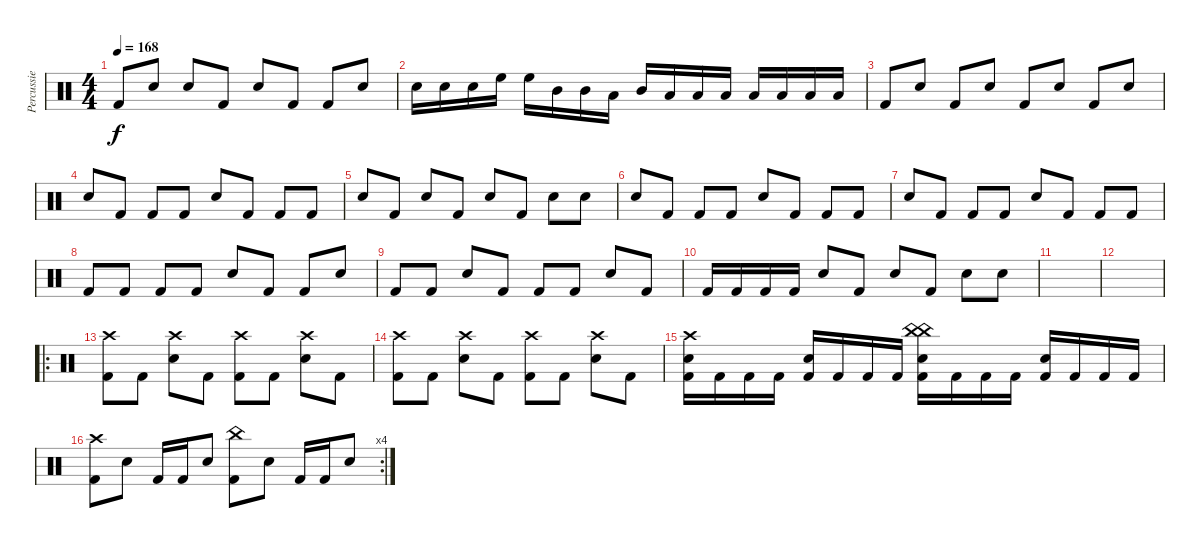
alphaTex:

\track ("Percussie" "Percussie") {instrument percussion}
\staff {score}
\articulation defaults
\ts (4 4)
\tempo 168
\clef neutral
\ks c "Kick (hit) 2".8{dy f} "Snare (hit) 2".8 "Snare (hit) 2".8 "Kick (hit) 2".8 "Snare (hit) 2".8 "Kick (hit) 2".8 "Kick (hit) 2".8 "Snare (hit) 2".8
|
"Snare (hit) 2".16 "Snare (hit) 2".16 "Snare (hit) 2".16 "High Floor Tom (hit)".16 "High Floor Tom (hit)".16 "Mid Tom (hit)".16 "Mid Tom (hit)".16 "Low Tom (hit)".16 "Mid Tom (hit)".16 "Low Tom (hit)".16 "Low Tom (hit)".16 "Low Tom (hit)".16 "Low Floor Tom (hit)".16 "Low Floor Tom (hit)".16 "Low Floor Tom (hit)".16 "Low Floor Tom (hit)".16 |
"Kick (hit) 2".8 "Snare (hit) 2".8 "Kick (hit) 2".8 "Snare (hit) 2".8 "Kick (hit) 2".8 "Snare (hit) 2".8 "Kick (hit) 2".8 "Snare (hit) 2".8 |
"Snare (hit) 2".8 "Kick (hit) 2".8 "Kick (hit) 2".8 "Kick (hit) 2".8 "Snare (hit) 2".8 "Kick (hit) 2".8 "Kick (hit) 2".8 "Kick (hit) 2".8 |
"Snare (hit) 2".8 "Kick (hit) 2".8 "Snare (hit) 2".8 "Kick (hit) 2".8 "Snare (hit) 2".8 "Kick (hit) 2".8 "Snare (hit) 2".8 "Snare (hit) 2".8 |
"Snare (hit) 2".8 "Kick (hit) 2".8 "Kick (hit) 2".8 "Kick (hit) 2".8 "Snare (hit) 2".8 "Kick (hit) 2".8 "Kick (hit) 2".8 "Kick (hit) 2".8 |
"Snare (hit) 2".8 "Kick (hit) 2".8 "Kick (hit) 2".8 "Kick (hit) 2".8 "Snare (hit) 2".8 "Kick (hit) 2".8 "Kick (hit) 2".8 "Kick (hit) 2".8 |
"Kick (hit) 2".8 "Kick (hit) 2".8 "Kick (hit) 2".8 "Kick (hit) 2".8 "Snare (hit) 2".8 "Kick (hit) 2".8 "Kick (hit) 2".8 "Snare (hit) 2".8 |
"Kick (hit) 2".8 "Kick (hit) 2".8 "Snare (hit) 2".8 "Kick (hit) 2".8 "Kick (hit) 2".8 "Kick (hit) 2".8 "Snare (hit) 2".8 "Kick (hit) 2".8 |
"Kick (hit) 2".16 "Kick (hit) 2".16 "Kick (hit) 2".16 "Kick (hit) 2".16 "Snare (hit) 2".8 "Kick (hit) 2".8 "Snare (hit) 2".8 "Kick (hit) 2".8 "Snare (hit) 2".8 "Snare (hit) 2".8 |
|
|
\ro
("Crash high (hit)" "Kick (hit) 2").8 "Kick (hit) 2".8 ("Crash high (hit)" "Snare (hit) 2").8 "Kick (hit) 2".8 ("Crash high (hit)" "Kick (hit) 2").8 "Kick (hit) 2".8 ("Crash high (hit)" "Snare (hit) 2").8 "Kick (hit) 2".8 |
("Crash high (hit)" "Kick (hit) 2").8 "Kick (hit) 2".8 ("Crash high (hit)" "Snare (hit) 2").8 "Kick (hit) 2".8 ("Crash high (hit)" "Kick (hit) 2").8 "Kick (hit) 2".8 ("Crash high (hit)" "Snare (hit) 2").8 "Kick (hit) 2".8 |
("Snare (hit) 2" "Crash high (hit)" "Kick (hit) 2").16 "Kick (hit) 2".16 "Kick (hit) 2".16 "Kick (hit) 2".16 ("Snare (hit) 2" "Kick (hit) 2").16 "Kick (hit) 2".16 "Kick (hit) 2".16 "Kick (hit) 2".16 ("Snare (hit) 2" "China (hit)" "China (hit)" "Kick (hit) 2").16 "Kick (hit) 2".16 "Kick (hit) 2".16 "Kick (hit) 2".16 ("Snare (hit) 2" "Kick (hit) 2").16 "Kick (hit) 2".16 "Kick (hit) 2".16 "Kick (hit) 2".16 |
\rc 4
("Crash high (hit)" "Kick (hit) 2").8 "Snare (hit) 2".8 "Kick (hit) 2".16 "Kick (hit) 2".16 "Snare (hit) 2".8 ("China (hit)" "Kick (hit) 2").8 "Snare (hit) 2".8 "Kick (hit) 2".16 "Kick (hit) 2".16 "Snare (hit) 2".8
